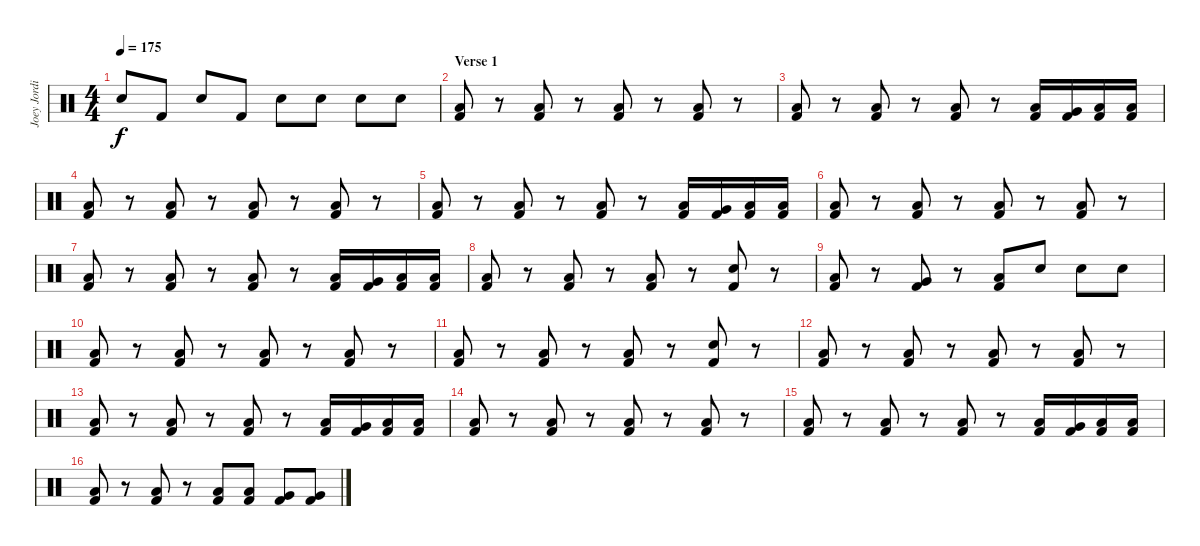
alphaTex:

\track ("Joey Jordison (Drums)" "Joey Jordi") {instrument percussion}
\staff {score}
\articulation defaults
\ts (4 4)
\tempo 175
\clef neutral
\ks c "Electric Snare (hit)".8{dy f} "Kick (hit) 2".8 "Electric Snare (hit)".8 "Kick (hit) 2".8 "Electric Snare (hit)".8 "Electric Snare (hit)".8 "Electric Snare (hit)".8 "Electric Snare (hit)".8
|
\section ("" "Verse 1")
("Low Floor Tom (hit)" "Kick (hit) 2").8 r.8 ("Low Floor Tom (hit)" "Kick (hit) 2").8 r.8 ("Low Floor Tom (hit)" "Kick (hit) 2").8 r.8 ("Low Floor Tom (hit)" "Kick (hit) 2").8 r.8 |
("Low Floor Tom (hit)" "Kick (hit) 2").8 r.8 ("Low Floor Tom (hit)" "Kick (hit) 2").8 r.8 ("Low Floor Tom (hit)" "Kick (hit) 2").8 r.8 ("Low Floor Tom (hit)" "Kick (hit) 2").16 ("Very Low Tom (hit)" "Kick (hit) 2").16 ("Low Floor Tom (hit)" "Kick (hit) 2").16 ("Low Floor Tom (hit)" "Kick (hit) 2").16 |
("Low Floor Tom (hit)" "Kick (hit) 2").8 r.8 ("Low Floor Tom (hit)" "Kick (hit) 2").8 r.8 ("Low Floor Tom (hit)" "Kick (hit) 2").8 r.8 ("Low Floor Tom (hit)" "Kick (hit) 2").8 r.8 |
("Low Floor Tom (hit)" "Kick (hit) 2").8 r.8 ("Low Floor Tom (hit)" "Kick (hit) 2").8 r.8 ("Low Floor Tom (hit)" "Kick (hit) 2").8 r.8 ("Low Floor Tom (hit)" "Kick (hit) 2").16 ("Very Low Tom (hit)" "Kick (hit) 2").16 ("Low Floor Tom (hit)" "Kick (hit) 2").16 ("Low Floor Tom (hit)" "Kick (hit) 2").16 |
("Low Floor Tom (hit)" "Kick (hit) 2").8 r.8 ("Low Floor Tom (hit)" "Kick (hit) 2").8 r.8 ("Low Floor Tom (hit)" "Kick (hit) 2").8 r.8 ("Low Floor Tom (hit)" "Kick (hit) 2").8 r.8 |
("Low Floor Tom (hit)" "Kick (hit) 2").8 r.8 ("Low Floor Tom (hit)" "Kick (hit) 2").8 r.8 ("Low Floor Tom (hit)" "Kick (hit) 2").8 r.8 ("Low Floor Tom (hit)" "Kick (hit) 2").16 ("Very Low Tom (hit)" "Kick (hit) 2").16 ("Low Floor Tom (hit)" "Kick (hit) 2").16 ("Low Floor Tom (hit)" "Kick (hit) 2").16 |
("Low Floor Tom (hit)" "Kick (hit) 2").8 r.8 ("Low Floor Tom (hit)" "Kick (hit) 2").8 r.8 ("Low Floor Tom (hit)" "Kick (hit) 2").8 r.8 ("Electric Snare (hit)" "Kick (hit) 2").8 r.8 |
("Low Floor Tom (hit)" "Kick (hit) 2").8 r.8 ("Very Low Tom (hit)" "Kick (hit) 2").8 r.8 ("Low Floor Tom (hit)" "Kick (hit) 2").8 "Electric Snare (hit)".8 "Electric Snare (hit)".8 "Electric Snare (hit)".8 |
("Low Floor Tom (hit)" "Kick (hit) 2").8 r.8 ("Low Floor Tom (hit)" "Kick (hit) 2").8 r.8 ("Low Floor Tom (hit)" "Kick (hit) 2").8 r.8 ("Low Floor Tom (hit)" "Kick (hit) 2").8 r.8 |
("Low Floor Tom (hit)" "Kick (hit) 2").8 r.8 ("Low Floor Tom (hit)" "Kick (hit) 2").8 r.8 ("Low Floor Tom (hit)" "Kick (hit) 2").8 r.8 ("Electric Snare (hit)" "Kick (hit) 2").8 r.8 |
("Low Floor Tom (hit)" "Kick (hit) 2").8 r.8 ("Low Floor Tom (hit)" "Kick (hit) 2").8 r.8 ("Low Floor Tom (hit)" "Kick (hit) 2").8 r.8 ("Low Floor Tom (hit)" "Kick (hit) 2").8 r.8 |
("Low Floor Tom (hit)" "Kick (hit) 2").8 r.8 ("Low Floor Tom (hit)" "Kick (hit) 2").8 r.8 ("Low Floor Tom (hit)" "Kick (hit) 2").8 r.8 ("Low Floor Tom (hit)" "Kick (hit) 2").16 ("Very Low Tom (hit)" "Kick (hit) 2").16 ("Low Floor Tom (hit)" "Kick (hit) 2").16 ("Low Floor Tom (hit)" "Kick (hit) 2").16 |
("Low Floor Tom (hit)" "Kick (hit) 2").8 r.8 ("Low Floor Tom (hit)" "Kick (hit) 2").8 r.8 ("Low Floor Tom (hit)" "Kick (hit) 2").8 r.8 ("Low Floor Tom (hit)" "Kick (hit) 2").8 r.8 |
("Low Floor Tom (hit)" "Kick (hit) 2").8 r.8 ("Low Floor Tom (hit)" "Kick (hit) 2").8 r.8 ("Low Floor Tom (hit)" "Kick (hit) 2").8 r.8 ("Low Floor Tom (hit)" "Kick (hit) 2").16 ("Very Low Tom (hit)" "Kick (hit) 2").16 ("Low Floor Tom (hit)" "Kick (hit) 2").16 ("Low Floor Tom (hit)" "Kick (hit) 2").16 |
("Low Floor Tom (hit)" "Kick (hit) 2").8 r.8 ("Low Floor Tom (hit)" "Kick (hit) 2").8 r.8 ("Low Floor Tom (hit)" "Kick (hit) 2").8 ("Low Floor Tom (hit)" "Kick (hit) 2").8 ("Very Low Tom (hit)" "Kick (hit) 2").8 ("Very Low Tom (hit)" "Kick (hit) 2").8
